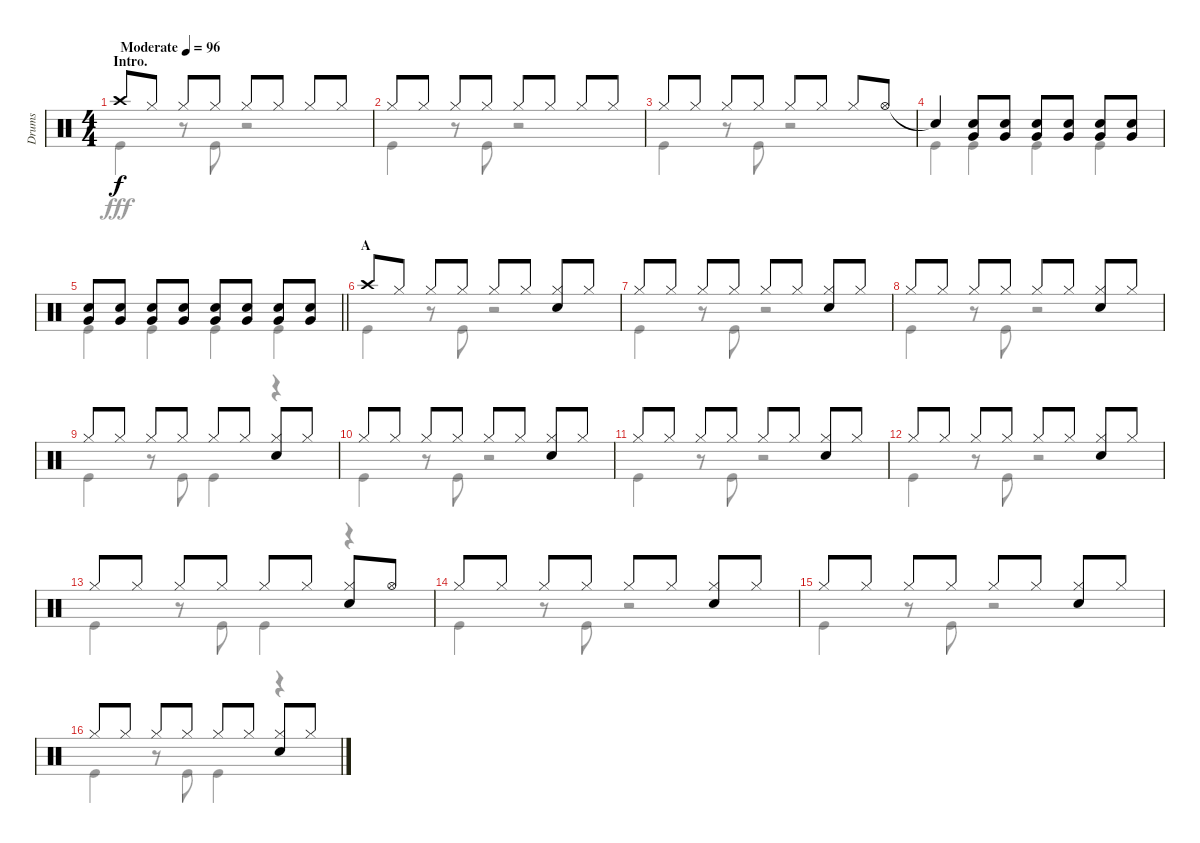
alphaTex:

\track ("Drums" "Drums") {instrument percussion}
\staff {score}
\articulation defaults
\voice
\ts (4 4)
\section ("" "Intro.")
\tempo (96 "Moderate")
\clef neutral
\ks c "Crash high (hit)".8{dy f} "Hi-Hat (closed)".8 "Hi-Hat (closed)".8 "Hi-Hat (closed)".8 "Hi-Hat (closed)".8 "Hi-Hat (closed)".8 "Hi-Hat (closed)".8 "Hi-Hat (closed)".8
|
"Hi-Hat (closed)".8 "Hi-Hat (closed)".8 "Hi-Hat (closed)".8 "Hi-Hat (closed)".8 "Hi-Hat (closed)".8 "Hi-Hat (closed)".8 "Hi-Hat (closed)".8 "Hi-Hat (closed)".8 |
"Hi-Hat (closed)".8 "Hi-Hat (closed)".8 "Hi-Hat (closed)".8 "Hi-Hat (closed)".8 "Hi-Hat (closed)".8 "Hi-Hat (closed)".8 "Hi-Hat (closed)".8 "Hi-Hat (open)".8 |
"Snare (hit)"{t}.4 ("Snare (hit) 2" "Very Low Tom (hit)").8 ("Snare (hit) 2" "Very Low Tom (hit)").8 ("Snare (hit) 2" "Very Low Tom (hit)").8 ("Snare (hit) 2" "Very Low Tom (hit)").8 ("Snare (hit) 2" "Very Low Tom (hit)").8 ("Snare (hit) 2" "Very Low Tom (hit)").8 |
\barLineRight lightlight
("Snare (hit) 2" "Very Low Tom (hit)").8 ("Snare (hit) 2" "Very Low Tom (hit)").8 ("Snare (hit) 2" "Very Low Tom (hit)").8 ("Snare (hit) 2" "Very Low Tom (hit)").8 ("Snare (hit) 2" "Very Low Tom (hit)").8 ("Snare (hit) 2" "Very Low Tom (hit)").8 ("Snare (hit) 2" "Very Low Tom (hit)").8 ("Snare (hit) 2" "Very Low Tom (hit)").8 |
\section ("" "A")
"Crash high (hit)".8 "Hi-Hat (closed)".8 "Hi-Hat (closed)".8 "Hi-Hat (closed)".8 "Hi-Hat (closed)".8 "Hi-Hat (closed)".8 ("Hi-Hat (closed)" "Snare (hit) 2").8 "Hi-Hat (closed)".8 |
"Hi-Hat (closed)".8 "Hi-Hat (closed)".8 "Hi-Hat (closed)".8 "Hi-Hat (closed)".8 "Hi-Hat (closed)".8 "Hi-Hat (closed)".8 ("Hi-Hat (closed)" "Snare (hit) 2").8 "Hi-Hat (closed)".8 |
"Hi-Hat (closed)".8 "Hi-Hat (closed)".8 "Hi-Hat (closed)".8 "Hi-Hat (closed)".8 "Hi-Hat (closed)".8 "Hi-Hat (closed)".8 ("Hi-Hat (closed)" "Snare (hit) 2").8 "Hi-Hat (closed)".8 |
"Hi-Hat (closed)".8 "Hi-Hat (closed)".8 "Hi-Hat (closed)".8 "Hi-Hat (closed)".8 "Hi-Hat (closed)".8 "Hi-Hat (closed)".8 ("Hi-Hat (closed)" "Snare (hit) 2").8 "Hi-Hat (closed)".8 |
"Hi-Hat (closed)".8 "Hi-Hat (closed)".8 "Hi-Hat (closed)".8 "Hi-Hat (closed)".8 "Hi-Hat (closed)".8 "Hi-Hat (closed)".8 ("Hi-Hat (closed)" "Snare (hit) 2").8 "Hi-Hat (closed)".8 |
"Hi-Hat (closed)".8 "Hi-Hat (closed)".8 "Hi-Hat (closed)".8 "Hi-Hat (closed)".8 "Hi-Hat (closed)".8 "Hi-Hat (closed)".8 ("Hi-Hat (closed)" "Snare (hit) 2").8 "Hi-Hat (closed)".8 |
"Hi-Hat (closed)".8 "Hi-Hat (closed)".8 "Hi-Hat (closed)".8 "Hi-Hat (closed)".8 "Hi-Hat (closed)".8 "Hi-Hat (closed)".8 ("Hi-Hat (closed)" "Snare (hit) 2").8 "Hi-Hat (closed)".8 |
"Hi-Hat (closed)".8 "Hi-Hat (closed)".8 "Hi-Hat (closed)".8 "Hi-Hat (closed)".8 "Hi-Hat (closed)".8 "Hi-Hat (closed)".8 ("Hi-Hat (closed)" "Snare (hit) 2").8 "Hi-Hat (open)".8 |
"Hi-Hat (closed)".8 "Hi-Hat (closed)".8 "Hi-Hat (closed)".8 "Hi-Hat (closed)".8 "Hi-Hat (closed)".8 "Hi-Hat (closed)".8 ("Hi-Hat (closed)" "Snare (hit) 2").8 "Hi-Hat (closed)".8 |
"Hi-Hat (closed)".8 "Hi-Hat (closed)".8 "Hi-Hat (closed)".8 "Hi-Hat (closed)".8 "Hi-Hat (closed)".8 "Hi-Hat (closed)".8 ("Hi-Hat (closed)" "Snare (hit) 2").8 "Hi-Hat (closed)".8 |
"Hi-Hat (closed)".8 "Hi-Hat (closed)".8 "Hi-Hat (closed)".8 "Hi-Hat (closed)".8 "Hi-Hat (closed)".8 "Hi-Hat (closed)".8 ("Hi-Hat (closed)" "Snare (hit) 2").8 "Hi-Hat (closed)".8
\voice
\clef neutral
\ottava regular
\simile none
\ks c "Kick (hit)".4{dy fff}
r.8 "Kick (hit)".8 r.2 |
"Kick (hit)".4 r.8 "Kick (hit)".8 r.2 |
"Kick (hit)".4 r.8 "Kick (hit)".8 r.2 |
"Kick (hit)".4 "Kick (hit)".4 "Kick (hit)".4 "Kick (hit)".4 |
\barLineRight lightlight "Kick (hit)".4 "Kick (hit)".4 "Kick (hit)".4 "Kick (hit)".4
|
"Kick (hit)".4 r.8 "Kick (hit)".8 r.2 |
"Kick (hit)".4 r.8 "Kick (hit)".8 r.2 |
"Kick (hit)".4 r.8 "Kick (hit)".8 r.2 |
"Kick (hit)".4 r.8 "Kick (hit)".8 "Kick (hit)".4 r.4 |
"Kick (hit)".4 r.8 "Kick (hit)".8 r.2 |
"Kick (hit)".4 r.8 "Kick (hit)".8 r.2 |
"Kick (hit)".4 r.8 "Kick (hit)".8 r.2 |
"Kick (hit)".4 r.8 "Kick (hit)".8 "Kick (hit)".4 r.4 |
"Kick (hit)".4 r.8 "Kick (hit)".8 r.2 |
"Kick (hit)".4 r.8 "Kick (hit)".8 r.2 |
"Kick (hit)".4 r.8 "Kick (hit)".8 "Kick (hit)".4 r.4
